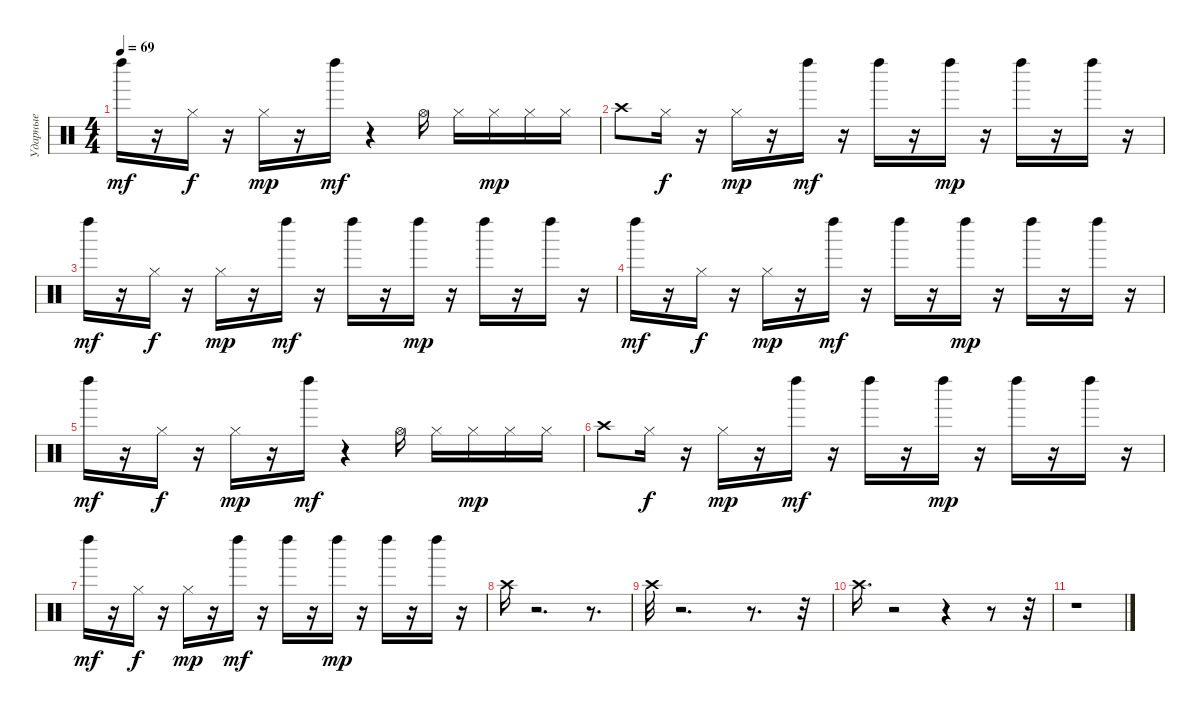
\track ("Ударные" "Ударные") {instrument percussion}
\staff {score}
\articulation defaults
\ts (4 4)
\tempo 69
\clef neutral
\ks c "Left Maraca (hit)".16{dy mf}
r.16 "Hi-Hat (closed)".16{dy f} r.16 "Hi-Hat (closed)".16{dy mp} r.16 "Left Maraca (hit)".16{dy mf} r.4 "Hi-Hat (open)".16 "Hi-Hat (closed)".16 "Hi-Hat (closed)".16{dy mp} "Hi-Hat (closed)".16 "Hi-Hat (closed)".16 |
"Crash high (hit)".8 "Hi-Hat (closed)".16{dy f} r.16 "Hi-Hat (closed)".16{dy mp} r.16 "Left Maraca (hit)".16{dy mf} r.16 "Left Maraca (hit)".16 r.16 "Left Maraca (hit)".16{dy mp} r.16 "Left Maraca (hit)".16 r.16 "Left Maraca (hit)".16 r.16 |
"Left Maraca (hit)".16{dy mf} r.16 "Hi-Hat (closed)".16{dy f} r.16 "Hi-Hat (closed)".16{dy mp} r.16 "Left Maraca (hit)".16{dy mf} r.16 "Left Maraca (hit)".16 r.16 "Left Maraca (hit)".16{dy mp} r.16 "Left Maraca (hit)".16 r.16 "Left Maraca (hit)".16 r.16 |
"Left Maraca (hit)".16{dy mf} r.16 "Hi-Hat (closed)".16{dy f} r.16 "Hi-Hat (closed)".16{dy mp} r.16 "Left Maraca (hit)".16{dy mf} r.16 "Left Maraca (hit)".16 r.16 "Left Maraca (hit)".16{dy mp} r.16 "Left Maraca (hit)".16 r.16 "Left Maraca (hit)".16 r.16 |
"Left Maraca (hit)".16{dy mf} r.16 "Hi-Hat (closed)".16{dy f} r.16 "Hi-Hat (closed)".16{dy mp} r.16 "Left Maraca (hit)".16{dy mf} r.4 "Hi-Hat (open)".16 "Hi-Hat (closed)".16 "Hi-Hat (closed)".16{dy mp} "Hi-Hat (closed)".16 "Hi-Hat (closed)".16 |
"Crash high (hit)".8 "Hi-Hat (closed)".16{dy f} r.16 "Hi-Hat (closed)".16{dy mp} r.16 "Left Maraca (hit)".16{dy mf} r.16 "Left Maraca (hit)".16 r.16 "Left Maraca (hit)".16{dy mp} r.16 "Left Maraca (hit)".16 r.16 "Left Maraca (hit)".16 r.16 |
"Left Maraca (hit)".16{dy mf} r.16 "Hi-Hat (closed)".16{dy f} r.16 "Hi-Hat (closed)".16{dy mp} r.16 "Left Maraca (hit)".16{dy mf} r.16 "Left Maraca (hit)".16 r.16 "Left Maraca (hit)".16{dy mp} r.16 "Left Maraca (hit)".16 r.16 "Left Maraca (hit)".16 r.16 |
"Crash high (hit)".16 r.2{d} r.8{d} |
"Crash high (hit)".32 r.2{d} r.8{d} r.32 |
"Crash high (hit)".16{d} r.2 r.4 r.8 r.32 |
r.1
